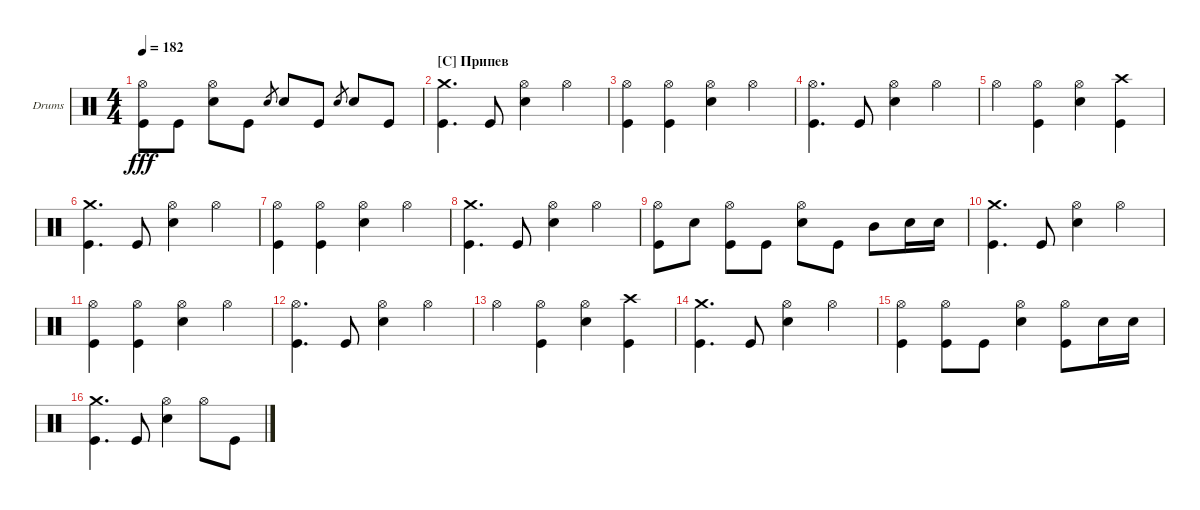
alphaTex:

\defaultSystemsLayout 4
\bracketExtendMode groupsimilarinstruments
\firstSystemTrackNameOrientation horizontal
\otherSystemsTrackNameOrientation horizontal
\track ("Drumkit" "Drums") {instrument percussion}
\staff {score}
\articulation defaults
\ts (4 4)
\tempo 182
\clef neutral
\ks c
("Kick (hit)" "Hi-Hat (open)").8{dy fff} "Kick (hit)".8 ("Snare (hit) 2" "Hi-Hat (open)").8 "Kick (hit)".8 "Snare (hit) 2".8{gr} "Snare (hit) 2".8 "Kick (hit)".8 "Snare (hit) 2".8{gr} "Snare (hit) 2".8 "Kick (hit)".8 |
\section ("C" "Припев")
("Kick (hit)" "Crash medium (hit)").4{d} "Kick (hit)".8 ("Snare (hit) 2" "Hi-Hat (open)").4 "Hi-Hat (open)".4 |
("Kick (hit)" "Hi-Hat (open)").4 ("Kick (hit)" "Hi-Hat (open)").4 ("Snare (hit) 2" "Hi-Hat (open)").4 "Hi-Hat (open)".4 |
("Kick (hit)" "Hi-Hat (open)").4{d} "Kick (hit)".8 ("Snare (hit) 2" "Hi-Hat (open)").4 "Hi-Hat (open)".4 |
"Hi-Hat (open)".4 ("Kick (hit)" "Hi-Hat (open)").4 ("Snare (hit) 2" "Hi-Hat (open)").4 ("Kick (hit)" "Crash high (hit)").4 |
("Kick (hit)" "Crash medium (hit)").4{d} "Kick (hit)".8 ("Snare (hit) 2" "Hi-Hat (open)").4 "Hi-Hat (open)".4 |
("Kick (hit)" "Hi-Hat (open)").4 ("Kick (hit)" "Hi-Hat (open)").4 ("Snare (hit) 2" "Hi-Hat (open)").4 "Hi-Hat (open)".4 |
("Kick (hit)" "Crash medium (hit)").4{d} "Kick (hit)".8 ("Snare (hit) 2" "Hi-Hat (open)").4 "Hi-Hat (open)".4 |
("Kick (hit)" "Hi-Hat (open)").8 "Snare (hit) 2".8 ("Kick (hit)" "Hi-Hat (open)").8 "Kick (hit)".8 ("Snare (hit) 2" "Hi-Hat (open)").8 "Kick (hit)".8 "Mid Tom (hit)".8 "Snare (hit) 2".16 "Snare (hit) 2".16 |
("Kick (hit)" "Crash medium (hit)").4{d} "Kick (hit)".8 ("Snare (hit) 2" "Hi-Hat (open)").4 "Hi-Hat (open)".4 |
("Kick (hit)" "Hi-Hat (open)").4 ("Kick (hit)" "Hi-Hat (open)").4 ("Snare (hit) 2" "Hi-Hat (open)").4 "Hi-Hat (open)".4 |
("Kick (hit)" "Hi-Hat (open)").4{d} "Kick (hit)".8 ("Snare (hit) 2" "Hi-Hat (open)").4 "Hi-Hat (open)".4 |
"Hi-Hat (open)".4 ("Kick (hit)" "Hi-Hat (open)").4 ("Snare (hit) 2" "Hi-Hat (open)").4 ("Kick (hit)" "Crash high (hit)").4 |
("Kick (hit)" "Crash medium (hit)").4{d} "Kick (hit)".8 ("Snare (hit) 2" "Hi-Hat (open)").4 "Hi-Hat (open)".4 |
("Kick (hit)" "Hi-Hat (open)").4 ("Kick (hit)" "Hi-Hat (open)").8 "Kick (hit)".8 ("Snare (hit) 2" "Hi-Hat (open)").4 ("Hi-Hat (open)" "Kick (hit)").8 "Snare (hit) 2".16 "Snare (hit) 2".16 |
("Kick (hit)" "Crash medium (hit)").4{d} "Kick (hit)".8 ("Snare (hit) 2" "Hi-Hat (open)").4 "Hi-Hat (open)".8 "Kick (hit)".8
